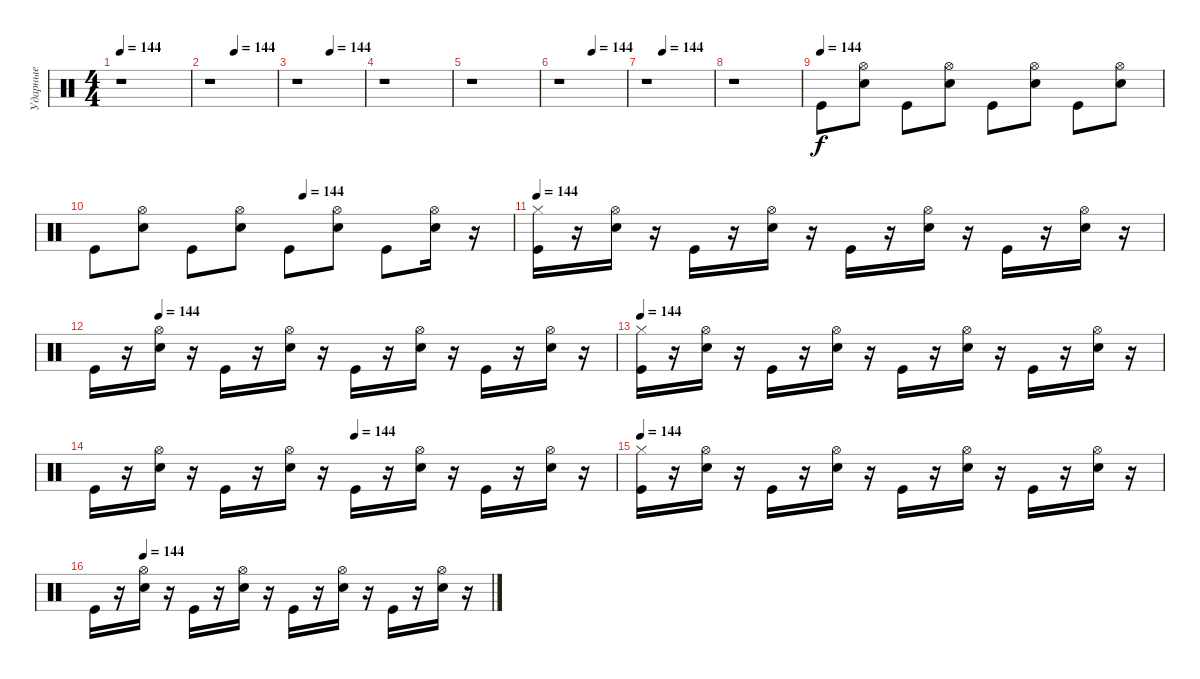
\track ("Ударные" "Ударные") {instrument percussion}
\staff {score}
\articulation defaults
\ts (4 4)
\tempo 144
\clef neutral
\ks c
r.1{dy f} |
\tempo (144 0.375)
r.1 |
\tempo (144 0.5)
r.1 |
r.1 |
r.1 |
\tempo (144 0.5)
r.1 |
\tempo (144 0.25)
r.1 |
r.1 |
\tempo (144)
"Kick (hit)".8 ("Snare (hit) 2" "Hi-Hat (open)").8 "Kick (hit)".8 ("Snare (hit) 2" "Hi-Hat (open)").8 "Kick (hit)".8 ("Snare (hit) 2" "Hi-Hat (open)").8 "Kick (hit)".8 ("Snare (hit) 2" "Hi-Hat (open)").8 |
\tempo (144 0.5)
"Kick (hit)".8 ("Snare (hit) 2" "Hi-Hat (open)").8 "Kick (hit)".8 ("Snare (hit) 2" "Hi-Hat (open)").8 "Kick (hit)".8 ("Snare (hit) 2" "Hi-Hat (open)").8 "Kick (hit)".8 ("Snare (hit) 2" "Hi-Hat (open)").16 r.16 |
\tempo 144
("Kick (hit)" "Hi-Hat (closed)").16 r.16 ("Snare (hit) 2" "Hi-Hat (open)").16 r.16 "Kick (hit)".16 r.16 ("Snare (hit) 2" "Hi-Hat (open)").16 r.16 "Kick (hit)".16 r.16 ("Snare (hit) 2" "Hi-Hat (open)").16 r.16 "Kick (hit)".16 r.16 ("Snare (hit) 2" "Hi-Hat (open)").16 r.16 |
\tempo (144 0.125)
"Kick (hit)".16 r.16 ("Snare (hit) 2" "Hi-Hat (open)").16 r.16 "Kick (hit)".16 r.16 ("Snare (hit) 2" "Hi-Hat (open)").16 r.16 "Kick (hit)".16 r.16 ("Snare (hit) 2" "Hi-Hat (open)").16 r.16 "Kick (hit)".16 r.16 ("Snare (hit) 2" "Hi-Hat (open)").16 r.16 |
\tempo 144
("Kick (hit)" "Hi-Hat (closed)").16 r.16 ("Snare (hit) 2" "Hi-Hat (open)").16 r.16 "Kick (hit)".16 r.16 ("Snare (hit) 2" "Hi-Hat (open)").16 r.16 "Kick (hit)".16 r.16 ("Snare (hit) 2" "Hi-Hat (open)").16 r.16 "Kick (hit)".16 r.16 ("Snare (hit) 2" "Hi-Hat (open)").16 r.16 |
\tempo (144 0.5)
"Kick (hit)".16 r.16 ("Snare (hit) 2" "Hi-Hat (open)").16 r.16 "Kick (hit)".16 r.16 ("Snare (hit) 2" "Hi-Hat (open)").16 r.16 "Kick (hit)".16 r.16 ("Snare (hit) 2" "Hi-Hat (open)").16 r.16 "Kick (hit)".16 r.16 ("Snare (hit) 2" "Hi-Hat (open)").16 r.16 |
\tempo 144
("Kick (hit)" "Hi-Hat (closed)").16 r.16 ("Snare (hit) 2" "Hi-Hat (open)").16 r.16 "Kick (hit)".16 r.16 ("Snare (hit) 2" "Hi-Hat (open)").16 r.16 "Kick (hit)".16 r.16 ("Snare (hit) 2" "Hi-Hat (open)").16 r.16 "Kick (hit)".16 r.16 ("Snare (hit) 2" "Hi-Hat (open)").16 r.16 |
\tempo (144 0.125)
"Kick (hit)".16 r.16 ("Snare (hit) 2" "Hi-Hat (open)").16 r.16 "Kick (hit)".16 r.16 ("Snare (hit) 2" "Hi-Hat (open)").16 r.16 "Kick (hit)".16 r.16 ("Snare (hit) 2" "Hi-Hat (open)").16 r.16 "Kick (hit)".16 r.16 ("Snare (hit) 2" "Hi-Hat (open)").16 r.16
